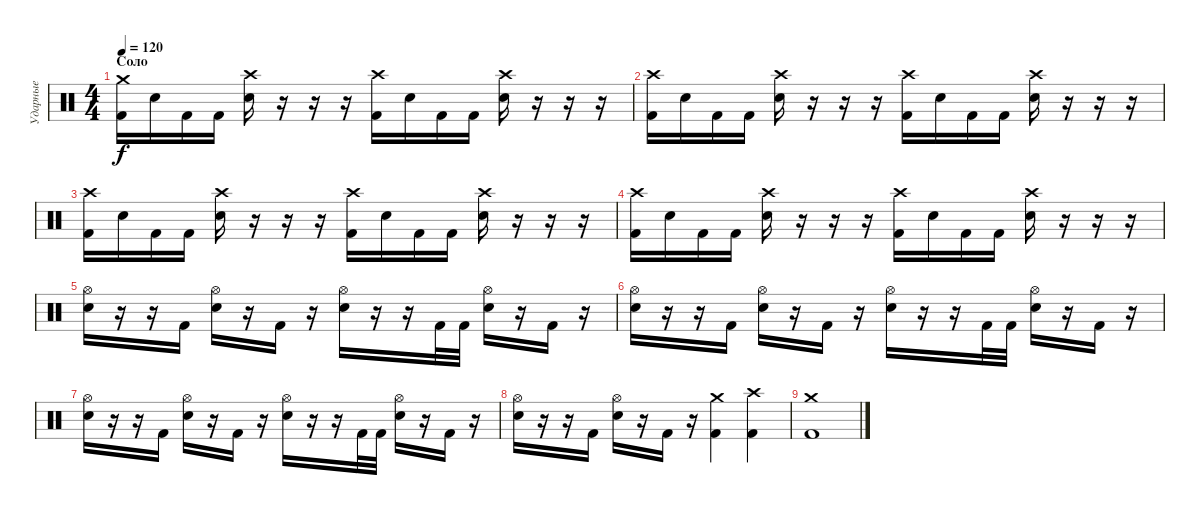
\track ("Ударные" "Ударные") {instrument percussion}
\staff {score}
\articulation defaults
\ts (4 4)
\section ("" "Соло")
\tempo 120
\clef neutral
\ks c
("Crash medium (hit)" "Kick (hit) 2").16{dy f} "Electric Snare (hit)".16 "Kick (hit) 2".16 "Kick (hit) 2".16 ("Crash high (hit)" "Electric Snare (hit)").16 r.16 r.16 r.16 ("Crash high (hit)" "Kick (hit) 2").16 "Electric Snare (hit)".16 "Kick (hit) 2".16 "Kick (hit) 2".16 ("Crash high (hit)" "Electric Snare (hit)").16 r.16 r.16 r.16 |
("Crash high (hit)" "Kick (hit) 2").16 "Electric Snare (hit)".16 "Kick (hit) 2".16 "Kick (hit) 2".16 ("Crash high (hit)" "Electric Snare (hit)").16 r.16 r.16 r.16 ("Crash high (hit)" "Kick (hit) 2").16 "Electric Snare (hit)".16 "Kick (hit) 2".16 "Kick (hit) 2".16 ("Crash high (hit)" "Electric Snare (hit)").16 r.16 r.16 r.16 |
("Crash high (hit)" "Kick (hit) 2").16 "Electric Snare (hit)".16 "Kick (hit) 2".16 "Kick (hit) 2".16 ("Crash high (hit)" "Electric Snare (hit)").16 r.16 r.16 r.16 ("Crash high (hit)" "Kick (hit) 2").16 "Electric Snare (hit)".16 "Kick (hit) 2".16 "Kick (hit) 2".16 ("Crash high (hit)" "Electric Snare (hit)").16 r.16 r.16 r.16 |
("Crash high (hit)" "Kick (hit) 2").16 "Electric Snare (hit)".16 "Kick (hit) 2".16 "Kick (hit) 2".16 ("Crash high (hit)" "Electric Snare (hit)").16 r.16 r.16 r.16 ("Crash high (hit)" "Kick (hit) 2").16 "Electric Snare (hit)".16 "Kick (hit) 2".16 "Kick (hit) 2".16 ("Crash high (hit)" "Electric Snare (hit)").16 r.16 r.16 r.16 |
("Hi-Hat (open)" "Electric Snare (hit)").16 r.16 r.16 "Kick (hit) 2".16 ("Hi-Hat (open)" "Electric Snare (hit)").16 r.16 "Kick (hit) 2".16 r.16 ("Hi-Hat (open)" "Electric Snare (hit)").16 r.16 r.16 "Kick (hit) 2".32 "Kick (hit) 2".32 ("Hi-Hat (open)" "Electric Snare (hit)").16 r.16 "Kick (hit) 2".16 r.16 |
("Hi-Hat (open)" "Electric Snare (hit)").16 r.16 r.16 "Kick (hit) 2".16 ("Hi-Hat (open)" "Electric Snare (hit)").16 r.16 "Kick (hit) 2".16 r.16 ("Hi-Hat (open)" "Electric Snare (hit)").16 r.16 r.16 "Kick (hit) 2".32 "Kick (hit) 2".32 ("Hi-Hat (open)" "Electric Snare (hit)").16 r.16 "Kick (hit) 2".16 r.16 |
("Hi-Hat (open)" "Electric Snare (hit)").16 r.16 r.16 "Kick (hit) 2".16 ("Hi-Hat (open)" "Electric Snare (hit)").16 r.16 "Kick (hit) 2".16 r.16 ("Hi-Hat (open)" "Electric Snare (hit)").16 r.16 r.16 "Kick (hit) 2".32 "Kick (hit) 2".32 ("Hi-Hat (open)" "Electric Snare (hit)").16 r.16 "Kick (hit) 2".16 r.16 |
("Hi-Hat (open)" "Electric Snare (hit)").16 r.16 r.16 "Kick (hit) 2".16 ("Hi-Hat (open)" "Electric Snare (hit)").16 r.16 "Kick (hit) 2".16 r.16 ("Crash medium (hit)" "Kick (hit) 2").4 ("Crash high (hit)" "Kick (hit) 2").4 |
("Crash medium (hit)" "Kick (hit) 2").1
